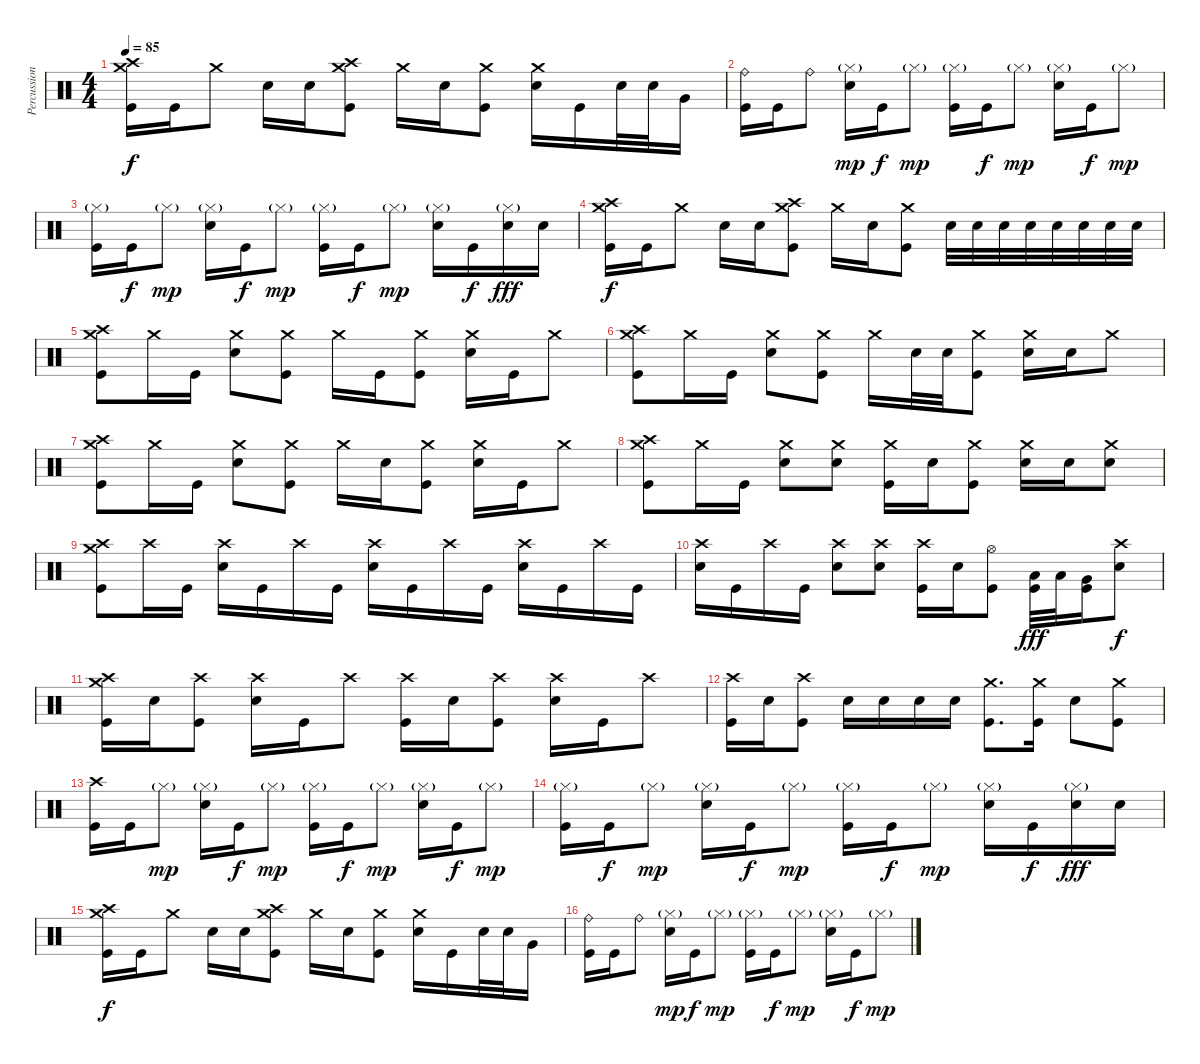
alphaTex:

\track ("Percussion" "Percussion") {instrument percussion}
\staff {score}
\articulation defaults
\ts (4 4)
\tempo 85
\clef neutral
\ks c
("Crash high (hit)" "Crash medium (hit)" "Kick (hit)").16{dy f} "Kick (hit)".16 "Crash medium (hit)".8 "Snare (hit) 2".16 "Snare (hit) 2".16 ("Crash high (hit)" "Crash medium (hit)" "Kick (hit)").8 "Crash medium (hit)".16 "Snare (hit) 2".16 ("Crash medium (hit)" "Kick (hit)").8 ("Crash medium (hit)" "Snare (hit) 2").16 "Kick (hit)".16 "Snare (hit) 2".32 "Snare (hit) 2".32 "Very Low Tom (hit)".16 |
("Ride (bell)" "Kick (hit)").16 "Kick (hit)".16 "Ride (bell)".8 ("Hi-Hat (closed)"{g} "Snare (hit) 2").16{dy mp} "Kick (hit)".16{dy f} "Hi-Hat (closed)"{g}.8{dy mp} ("Hi-Hat (closed)"{g} "Kick (hit)").16 "Kick (hit)".16{dy f} "Hi-Hat (closed)"{g}.8{dy mp} ("Hi-Hat (closed)"{g} "Snare (hit) 2").16 "Kick (hit)".16{dy f} "Hi-Hat (closed)"{g}.8{dy mp} |
("Hi-Hat (closed)"{g} "Kick (hit)").16 "Kick (hit)".16{dy f} "Hi-Hat (closed)"{g}.8{dy mp} ("Hi-Hat (closed)"{g} "Snare (hit) 2").16 "Kick (hit)".16{dy f} "Hi-Hat (closed)"{g}.8{dy mp} ("Hi-Hat (closed)"{g} "Kick (hit)").16 "Kick (hit)".16{dy f} "Hi-Hat (closed)"{g}.8{dy mp} ("Hi-Hat (closed)"{g} "Snare (hit) 2").16 "Kick (hit)".16{dy f} ("Hi-Hat (closed)"{g} "Snare (hit) 2").16{dy fff} "Snare (hit) 2".16 |
("Crash high (hit)" "Crash medium (hit)" "Kick (hit)").16{dy f} "Kick (hit)".16 "Crash medium (hit)".8 "Snare (hit) 2".16 "Snare (hit) 2".16 ("Crash high (hit)" "Crash medium (hit)" "Kick (hit)").8 "Crash medium (hit)".16 "Snare (hit) 2".16 ("Crash medium (hit)" "Kick (hit)").8 "Snare (hit) 2".32 "Snare (hit) 2".32 "Snare (hit) 2".32 "Snare (hit) 2".32 "Snare (hit) 2".32 "Snare (hit) 2".32 "Snare (hit) 2".32 "Snare (hit) 2".32 |
("Crash high (hit)" "Crash medium (hit)" "Kick (hit)").8 "Crash medium (hit)".16 "Kick (hit)".16 ("Crash medium (hit)" "Snare (hit) 2").8 ("Crash medium (hit)" "Kick (hit)").8 "Crash medium (hit)".16 "Kick (hit)".16 ("Crash medium (hit)" "Kick (hit)").8 ("Crash medium (hit)" "Snare (hit) 2").16 "Kick (hit)".16 "Crash medium (hit)".8 |
("Crash high (hit)" "Crash medium (hit)" "Kick (hit)").8 "Crash medium (hit)".16 "Kick (hit)".16 ("Crash medium (hit)" "Snare (hit) 2").8 ("Crash medium (hit)" "Kick (hit)").8 "Crash medium (hit)".16 "Snare (hit) 2".32 "Snare (hit) 2".32 ("Crash medium (hit)" "Kick (hit)").8 ("Crash medium (hit)" "Snare (hit) 2").16 "Snare (hit) 2".16 "Crash medium (hit)".8 |
("Crash high (hit)" "Crash medium (hit)" "Kick (hit)").8 "Crash medium (hit)".16 "Kick (hit)".16 ("Crash medium (hit)" "Snare (hit) 2").8 ("Crash medium (hit)" "Kick (hit)").8 "Crash medium (hit)".16 "Snare (hit) 2".16 ("Crash medium (hit)" "Kick (hit)").8 ("Crash medium (hit)" "Snare (hit) 2").16 "Kick (hit)".16 "Crash medium (hit)".8 |
("Crash high (hit)" "Crash medium (hit)" "Kick (hit)").8 "Crash medium (hit)".16 "Kick (hit)".16 ("Crash medium (hit)" "Snare (hit) 2").8 ("Crash medium (hit)" "Snare (hit) 2").8 ("Crash medium (hit)" "Kick (hit)").16 "Snare (hit) 2".16 ("Crash medium (hit)" "Kick (hit)").8 ("Crash medium (hit)" "Snare (hit) 2").16 "Snare (hit) 2".16 ("Crash medium (hit)" "Snare (hit) 2").8 |
("Crash high (hit)" "Crash medium (hit)" "Kick (hit)").8 "Crash high (hit)".16 "Kick (hit)".16 ("Crash high (hit)" "Snare (hit) 2").16 "Kick (hit)".16 "Crash high (hit)".16 "Kick (hit)".16 ("Crash high (hit)" "Snare (hit) 2").16 "Kick (hit)".16 "Crash high (hit)".16 "Kick (hit)".16 ("Crash high (hit)" "Snare (hit) 2").16 "Kick (hit)".16 "Crash high (hit)".16 "Kick (hit)".16 |
("Crash high (hit)" "Snare (hit) 2").16 "Kick (hit)".16 "Crash high (hit)".16 "Kick (hit)".16 ("Crash high (hit)" "Snare (hit) 2").8 ("Crash high (hit)" "Snare (hit) 2").8 ("Crash high (hit)" "Kick (hit)").16 "Snare (hit) 2".16 ("Hi-Hat (open)" "Kick (hit)").8 ("Low Tom (hit)" "Kick (hit)").32{dy fff} "Low Tom (hit)".32 ("Very Low Tom (hit)" "Kick (hit)").16 ("Crash high (hit)" "Snare (hit) 2").8{dy f} |
("Crash high (hit)" "Crash medium (hit)" "Kick (hit)").16 "Snare (hit) 2".16 ("Crash high (hit)" "Kick (hit)").8 ("Crash high (hit)" "Snare (hit) 2").16 "Kick (hit)".16 "Crash high (hit)".8 ("Crash high (hit)" "Kick (hit)").16 "Snare (hit) 2".16 ("Crash high (hit)" "Kick (hit)").8 ("Crash high (hit)" "Snare (hit) 2").16 "Kick (hit)".16 "Crash high (hit)".8 |
("Crash high (hit)" "Kick (hit)").16 "Snare (hit) 2".16 ("Crash high (hit)" "Kick (hit)").8 "Snare (hit) 2".16 "Snare (hit) 2".16 "Snare (hit) 2".16 "Snare (hit) 2".16 ("Crash medium (hit)" "Kick (hit)").8{d} ("Crash medium (hit)" "Kick (hit)").16 "Snare (hit) 2".8 ("Crash medium (hit)" "Kick (hit)").8 |
("Crash high (hit)" "Kick (hit)").16 "Kick (hit)".16 "Hi-Hat (closed)"{g}.8{dy mp} ("Hi-Hat (closed)"{g} "Snare (hit) 2").16 "Kick (hit)".16{dy f} "Hi-Hat (closed)"{g}.8{dy mp} ("Hi-Hat (closed)"{g} "Kick (hit)").16 "Kick (hit)".16{dy f} "Hi-Hat (closed)"{g}.8{dy mp} ("Hi-Hat (closed)"{g} "Snare (hit) 2").16 "Kick (hit)".16{dy f} "Hi-Hat (closed)"{g}.8{dy mp} |
("Hi-Hat (closed)"{g} "Kick (hit)").16 "Kick (hit)".16{dy f} "Hi-Hat (closed)"{g}.8{dy mp} ("Hi-Hat (closed)"{g} "Snare (hit) 2").16 "Kick (hit)".16{dy f} "Hi-Hat (closed)"{g}.8{dy mp} ("Hi-Hat (closed)"{g} "Kick (hit)").16 "Kick (hit)".16{dy f} "Hi-Hat (closed)"{g}.8{dy mp} ("Hi-Hat (closed)"{g} "Snare (hit) 2").16 "Kick (hit)".16{dy f} ("Hi-Hat (closed)"{g} "Snare (hit) 2").16{dy fff} "Snare (hit) 2".16 |
("Crash high (hit)" "Crash medium (hit)" "Kick (hit)").16{dy f} "Kick (hit)".16 "Crash medium (hit)".8 "Snare (hit) 2".16 "Snare (hit) 2".16 ("Crash high (hit)" "Crash medium (hit)" "Kick (hit)").8 "Crash medium (hit)".16 "Snare (hit) 2".16 ("Crash medium (hit)" "Kick (hit)").8 ("Crash medium (hit)" "Snare (hit) 2").16 "Kick (hit)".16 "Snare (hit) 2".32 "Snare (hit) 2".32 "Very Low Tom (hit)".16 |
("Ride (bell)" "Kick (hit)").16 "Kick (hit)".16 "Ride (bell)".8 ("Hi-Hat (closed)"{g} "Snare (hit) 2").16{dy mp} "Kick (hit)".16{dy f} "Hi-Hat (closed)"{g}.8{dy mp} ("Hi-Hat (closed)"{g} "Kick (hit)").16 "Kick (hit)".16{dy f} "Hi-Hat (closed)"{g}.8{dy mp} ("Hi-Hat (closed)"{g} "Snare (hit) 2").16 "Kick (hit)".16{dy f} "Hi-Hat (closed)"{g}.8{dy mp}
